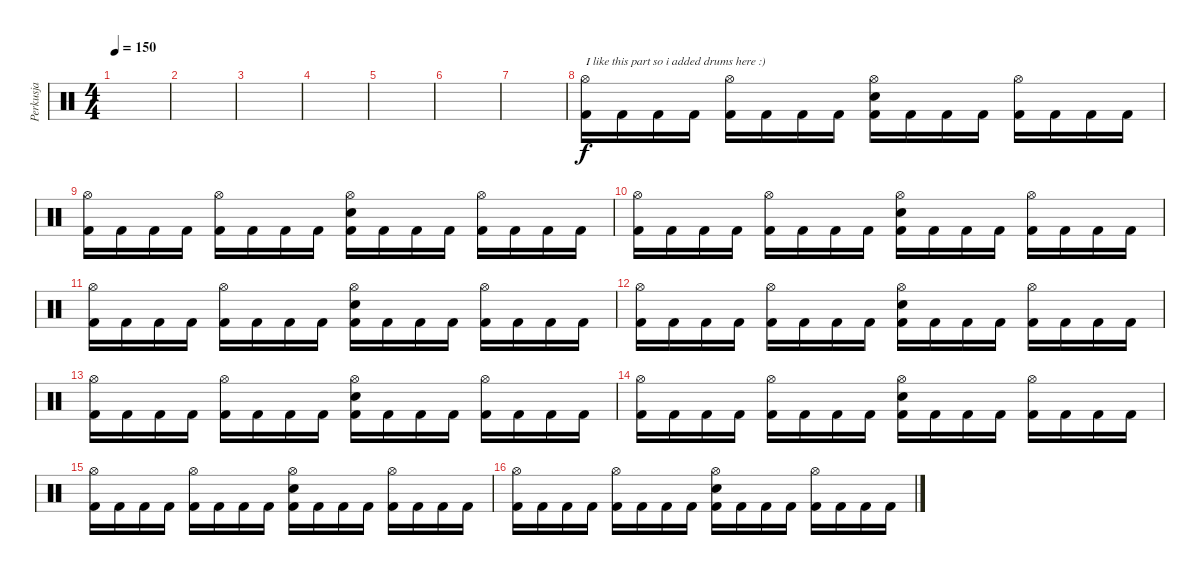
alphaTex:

\track ("Perkusja" "Perkusja") {instrument percussion}
\staff {score}
\articulation defaults
\ts (4 4)
\tempo 150
\clef neutral
\ks c
|
|
|
|
|
|
|
("Hi-Hat (open)" "Kick (hit) 2").16{txt "I like this part so i added drums here :)"} "Kick (hit) 2".16 "Kick (hit) 2".16 "Kick (hit) 2".16 ("Hi-Hat (open)" "Kick (hit) 2").16 "Kick (hit) 2".16 "Kick (hit) 2".16 "Kick (hit) 2".16 ("Snare (hit) 2" "Hi-Hat (open)" "Kick (hit) 2").16 "Kick (hit) 2".16 "Kick (hit) 2".16 "Kick (hit) 2".16 ("Hi-Hat (open)" "Kick (hit) 2").16 "Kick (hit) 2".16 "Kick (hit) 2".16 "Kick (hit) 2".16 |
("Hi-Hat (open)" "Kick (hit) 2").16 "Kick (hit) 2".16 "Kick (hit) 2".16 "Kick (hit) 2".16 ("Hi-Hat (open)" "Kick (hit) 2").16 "Kick (hit) 2".16 "Kick (hit) 2".16 "Kick (hit) 2".16 ("Snare (hit) 2" "Hi-Hat (open)" "Kick (hit) 2").16 "Kick (hit) 2".16 "Kick (hit) 2".16 "Kick (hit) 2".16 ("Hi-Hat (open)" "Kick (hit) 2").16 "Kick (hit) 2".16 "Kick (hit) 2".16 "Kick (hit) 2".16 |
("Hi-Hat (open)" "Kick (hit) 2").16 "Kick (hit) 2".16 "Kick (hit) 2".16 "Kick (hit) 2".16 ("Hi-Hat (open)" "Kick (hit) 2").16 "Kick (hit) 2".16 "Kick (hit) 2".16 "Kick (hit) 2".16 ("Snare (hit) 2" "Hi-Hat (open)" "Kick (hit) 2").16 "Kick (hit) 2".16 "Kick (hit) 2".16 "Kick (hit) 2".16 ("Hi-Hat (open)" "Kick (hit) 2").16 "Kick (hit) 2".16 "Kick (hit) 2".16 "Kick (hit) 2".16 |
("Hi-Hat (open)" "Kick (hit) 2").16 "Kick (hit) 2".16 "Kick (hit) 2".16 "Kick (hit) 2".16 ("Hi-Hat (open)" "Kick (hit) 2").16 "Kick (hit) 2".16 "Kick (hit) 2".16 "Kick (hit) 2".16 ("Snare (hit) 2" "Hi-Hat (open)" "Kick (hit) 2").16 "Kick (hit) 2".16 "Kick (hit) 2".16 "Kick (hit) 2".16 ("Hi-Hat (open)" "Kick (hit) 2").16 "Kick (hit) 2".16 "Kick (hit) 2".16 "Kick (hit) 2".16 |
("Hi-Hat (open)" "Kick (hit) 2").16 "Kick (hit) 2".16 "Kick (hit) 2".16 "Kick (hit) 2".16 ("Hi-Hat (open)" "Kick (hit) 2").16 "Kick (hit) 2".16 "Kick (hit) 2".16 "Kick (hit) 2".16 ("Snare (hit) 2" "Hi-Hat (open)" "Kick (hit) 2").16 "Kick (hit) 2".16 "Kick (hit) 2".16 "Kick (hit) 2".16 ("Hi-Hat (open)" "Kick (hit) 2").16 "Kick (hit) 2".16 "Kick (hit) 2".16 "Kick (hit) 2".16 |
("Hi-Hat (open)" "Kick (hit) 2").16 "Kick (hit) 2".16 "Kick (hit) 2".16 "Kick (hit) 2".16 ("Hi-Hat (open)" "Kick (hit) 2").16 "Kick (hit) 2".16 "Kick (hit) 2".16 "Kick (hit) 2".16 ("Snare (hit) 2" "Hi-Hat (open)" "Kick (hit) 2").16 "Kick (hit) 2".16 "Kick (hit) 2".16 "Kick (hit) 2".16 ("Hi-Hat (open)" "Kick (hit) 2").16 "Kick (hit) 2".16 "Kick (hit) 2".16 "Kick (hit) 2".16 |
("Hi-Hat (open)" "Kick (hit) 2").16 "Kick (hit) 2".16 "Kick (hit) 2".16 "Kick (hit) 2".16 ("Hi-Hat (open)" "Kick (hit) 2").16 "Kick (hit) 2".16 "Kick (hit) 2".16 "Kick (hit) 2".16 ("Snare (hit) 2" "Hi-Hat (open)" "Kick (hit) 2").16 "Kick (hit) 2".16 "Kick (hit) 2".16 "Kick (hit) 2".16 ("Hi-Hat (open)" "Kick (hit) 2").16 "Kick (hit) 2".16 "Kick (hit) 2".16 "Kick (hit) 2".16 |
("Hi-Hat (open)" "Kick (hit) 2").16 "Kick (hit) 2".16 "Kick (hit) 2".16 "Kick (hit) 2".16 ("Hi-Hat (open)" "Kick (hit) 2").16 "Kick (hit) 2".16 "Kick (hit) 2".16 "Kick (hit) 2".16 ("Snare (hit) 2" "Hi-Hat (open)" "Kick (hit) 2").16 "Kick (hit) 2".16 "Kick (hit) 2".16 "Kick (hit) 2".16 ("Hi-Hat (open)" "Kick (hit) 2").16 "Kick (hit) 2".16 "Kick (hit) 2".16 "Kick (hit) 2".16 |
("Hi-Hat (open)" "Kick (hit) 2").16 "Kick (hit) 2".16 "Kick (hit) 2".16 "Kick (hit) 2".16 ("Hi-Hat (open)" "Kick (hit) 2").16 "Kick (hit) 2".16 "Kick (hit) 2".16 "Kick (hit) 2".16 ("Snare (hit) 2" "Hi-Hat (open)" "Kick (hit) 2").16 "Kick (hit) 2".16 "Kick (hit) 2".16 "Kick (hit) 2".16 ("Hi-Hat (open)" "Kick (hit) 2").16 "Kick (hit) 2".16 "Kick (hit) 2".16 "Kick (hit) 2".16
